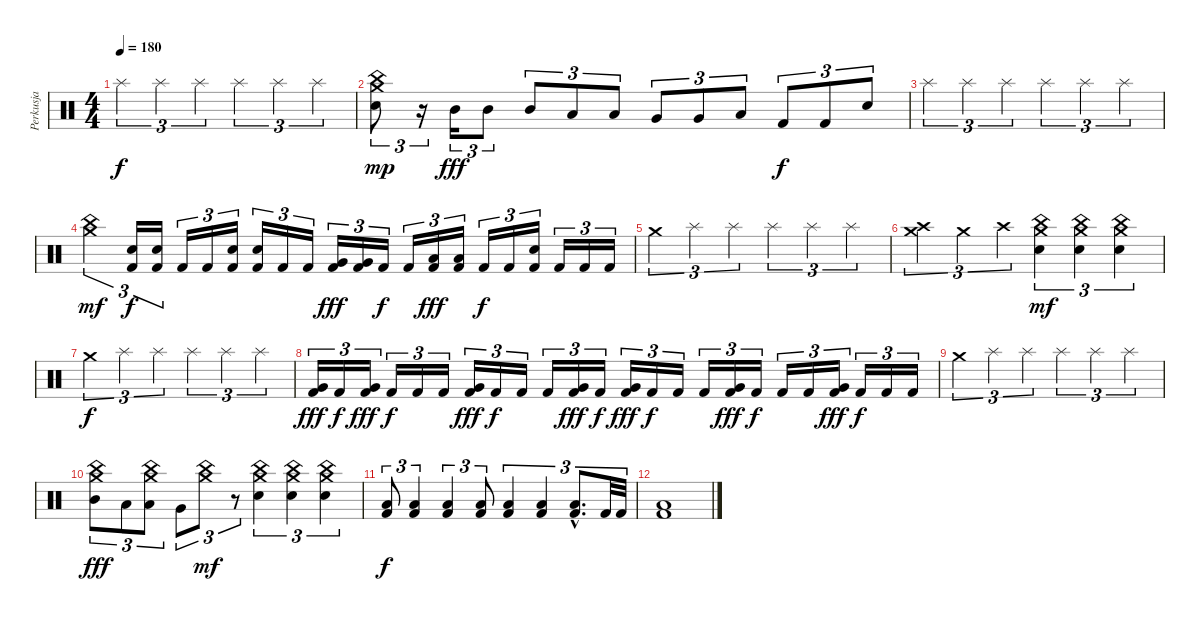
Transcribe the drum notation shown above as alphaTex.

\track ("Perkusja" "Perkusja") {instrument percussion}
\staff {score}
\articulation defaults
\ts (4 4)
\tempo 180
\clef neutral
\ks c "Splash (hit)".4{tu (3 2) dy f} "Splash (hit)".4{tu (3 2)} "Splash (hit)".4{tu (3 2)} "Splash (hit)".4{tu (3 2)} "Splash (hit)".4{tu (3 2)} "Splash (hit)".4{tu (3 2)}
|
("Crash medium (hit)" "China (hit)" "Snare (hit) 2").8{tu (3 2) dy mp} r.16{tu (3 2)} "Mid Tom (hit)".16{tu (3 2) dy fff} "Mid Tom (hit)".8{tu (3 2)} "Mid Tom (hit)".8{tu (3 2)} "Low Tom (hit)".8{tu (3 2)} "Low Tom (hit)".8{tu (3 2)} "Very Low Tom (hit)".8{tu (3 2)} "Very Low Tom (hit)".8{tu (3 2)} "Low Floor Tom (hit)".8{tu (3 2)} "Kick (hit) 2".8{tu (3 2) dy f} "Kick (hit) 2".8{tu (3 2)} "Snare (hit) 2".8{tu (3 2)} |
"Splash (hit)".4{tu (3 2)} "Splash (hit)".4{tu (3 2)} "Splash (hit)".4{tu (3 2)} "Splash (hit)".4{tu (3 2)} "Splash (hit)".4{tu (3 2)} "Splash (hit)".4{tu (3 2)} |
("Crash medium (hit)" "China (hit)").4{tu (3 2) dy mf} ("Snare (hit) 2" "Kick (hit) 2").16{tu (3 2) dy f} ("Snare (hit) 2" "Kick (hit) 2").16{tu (3 2)} "Kick (hit) 2".16{tu (3 2)} "Kick (hit) 2".16{tu (3 2)} ("Snare (hit) 2" "Kick (hit) 2").16{tu (3 2)} ("Snare (hit) 2" "Kick (hit) 2").16{tu (3 2)} "Kick (hit) 2".16{tu (3 2)} "Kick (hit) 2".16{tu (3 2)} ("Very Low Tom (hit)" "Kick (hit) 2").16{tu (3 2) dy fff} ("Very Low Tom (hit)" "Kick (hit) 2").16{tu (3 2)} "Kick (hit) 2".16{tu (3 2) dy f} "Kick (hit) 2".16{tu (3 2)} ("Low Floor Tom (hit)" "Kick (hit) 2").16{tu (3 2) dy fff} ("Low Floor Tom (hit)" "Kick (hit) 2").16{tu (3 2)} "Kick (hit) 2".16{tu (3 2) dy f} "Kick (hit) 2".16{tu (3 2)} ("Snare (hit) 2" "Kick (hit) 2").16{tu (3 2)} "Kick (hit) 2".16{tu (3 2)} "Kick (hit) 2".16{tu (3 2)} "Kick (hit) 2".16{tu (3 2)} |
"Crash medium (hit)".4{tu (3 2)} "Splash (hit)".4{tu (3 2)} "Splash (hit)".4{tu (3 2)} "Splash (hit)".4{tu (3 2)} "Splash (hit)".4{tu (3 2)} "Splash (hit)".4{tu (3 2)} |
("Crash high (hit)" "Crash medium (hit)").4{tu (3 2)} "Crash medium (hit)".4{tu (3 2)} "Crash high (hit)".4{tu (3 2)} ("Crash medium (hit)" "China (hit)" "Snare (hit) 2").4{tu (3 2) dy mf} ("Crash medium (hit)" "China (hit)" "Snare (hit) 2").4{tu (3 2)} ("Crash medium (hit)" "China (hit)" "Snare (hit) 2").4{tu (3 2)} |
"Crash medium (hit)".4{tu (3 2) dy f} "Splash (hit)".4{tu (3 2)} "Splash (hit)".4{tu (3 2)} "Splash (hit)".4{tu (3 2)} "Splash (hit)".4{tu (3 2)} "Splash (hit)".4{tu (3 2)} |
("Very Low Tom (hit)" "Kick (hit) 2").16{tu (3 2) dy fff} "Kick (hit) 2".16{tu (3 2) dy f} ("Very Low Tom (hit)" "Kick (hit) 2").16{tu (3 2) dy fff} "Kick (hit) 2".16{tu (3 2) dy f} "Kick (hit) 2".16{tu (3 2)} "Kick (hit) 2".16{tu (3 2)} ("Very Low Tom (hit)" "Kick (hit) 2").16{tu (3 2) dy fff} "Kick (hit) 2".16{tu (3 2) dy f} "Kick (hit) 2".16{tu (3 2)} "Kick (hit) 2".16{tu (3 2)} ("Very Low Tom (hit)" "Kick (hit) 2").16{tu (3 2) dy fff} "Kick (hit) 2".16{tu (3 2) dy f} ("Very Low Tom (hit)" "Kick (hit) 2").16{tu (3 2) dy fff} "Kick (hit) 2".16{tu (3 2) dy f} "Kick (hit) 2".16{tu (3 2)} "Kick (hit) 2".16{tu (3 2)} ("Very Low Tom (hit)" "Kick (hit) 2").16{tu (3 2) dy fff} "Kick (hit) 2".16{tu (3 2) dy f} "Kick (hit) 2".16{tu (3 2)} "Kick (hit) 2".16{tu (3 2)} ("Very Low Tom (hit)" "Kick (hit) 2").16{tu (3 2) dy fff} "Kick (hit) 2".16{tu (3 2) dy f} "Kick (hit) 2".16{tu (3 2)} "Kick (hit) 2".16{tu (3 2)} |
"Crash medium (hit)".4{tu (3 2)} "Splash (hit)".4{tu (3 2)} "Splash (hit)".4{tu (3 2)} "Splash (hit)".4{tu (3 2)} "Splash (hit)".4{tu (3 2)} "Splash (hit)".4{tu (3 2)} |
("Crash medium (hit)" "China (hit)" "Mid Tom (hit)").8{tu (3 2) dy fff} "Low Tom (hit)".8{tu (3 2)} ("Crash medium (hit)" "China (hit)" "Low Floor Tom (hit)").8{tu (3 2)} "Very Low Tom (hit)".8{tu (3 2)} ("Crash medium (hit)" "China (hit)").8{tu (3 2) dy mf} r.8{tu (3 2)} ("Crash medium (hit)" "China (hit)" "Snare (hit) 2").4{tu (3 2)} ("Crash medium (hit)" "China (hit)" "Snare (hit) 2").4{tu (3 2)} ("Crash medium (hit)" "China (hit)" "Snare (hit) 2").4{tu (3 2)} |
("Low Floor Tom (hit)" "Kick (hit) 2").8{tu (3 2) dy f} ("Low Floor Tom (hit)" "Kick (hit) 2").4{tu (3 2)} ("Low Floor Tom (hit)" "Kick (hit) 2").4{tu (3 2)} ("Low Floor Tom (hit)" "Kick (hit) 2").8{tu (3 2)} ("Low Floor Tom (hit)" "Kick (hit) 2").4{tu (3 2)} ("Low Floor Tom (hit)" "Kick (hit) 2").4{tu (3 2)} ("Low Floor Tom (hit)"{hac} "Kick (hit) 2"{hac}).8{d tu (3 2)} "Kick (hit) 2".32{tu (3 2)} "Kick (hit) 2".32{tu (3 2)} |
("Low Floor Tom (hit)" "Kick (hit) 2").1
